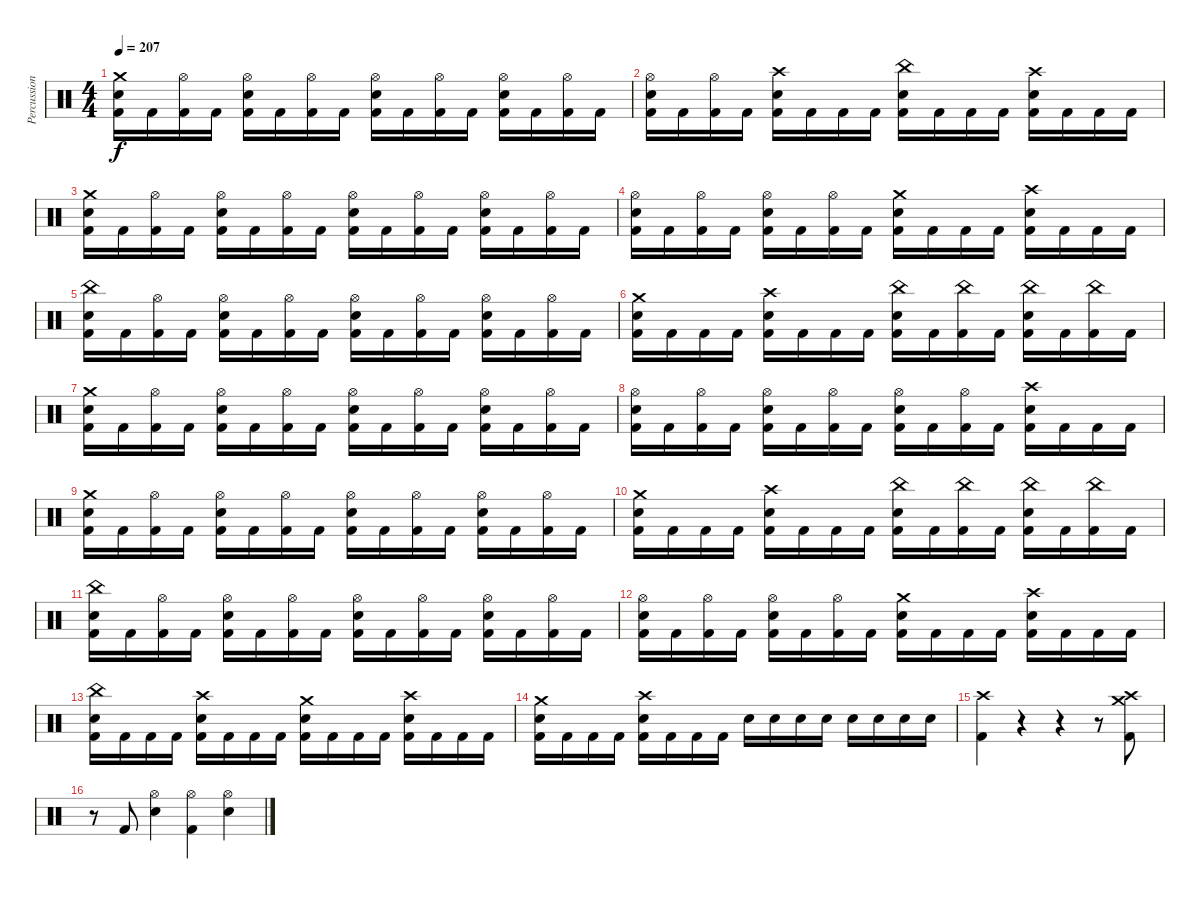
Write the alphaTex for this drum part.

\track ("Percussion" "Percussion") {instrument percussion}
\staff {score}
\articulation defaults
\ts (4 4)
\tempo 207
\clef neutral
\ks c
("Crash medium (hit)" "Electric Snare (hit)" "Kick (hit) 2").16{dy f} "Kick (hit) 2".16 ("Hi-Hat (open)" "Kick (hit) 2").16 "Kick (hit) 2".16 ("Hi-Hat (open)" "Electric Snare (hit)" "Kick (hit) 2").16 "Kick (hit) 2".16 ("Hi-Hat (open)" "Kick (hit) 2").16 "Kick (hit) 2".16 ("Hi-Hat (open)" "Electric Snare (hit)" "Kick (hit) 2").16 "Kick (hit) 2".16 ("Hi-Hat (open)" "Kick (hit) 2").16 "Kick (hit) 2".16 ("Hi-Hat (open)" "Electric Snare (hit)" "Kick (hit) 2").16 "Kick (hit) 2".16 ("Hi-Hat (open)" "Kick (hit) 2").16 "Kick (hit) 2".16 |
("Hi-Hat (open)" "Electric Snare (hit)" "Kick (hit) 2").16 "Kick (hit) 2".16 ("Hi-Hat (open)" "Kick (hit) 2").16 "Kick (hit) 2".16 ("Crash high (hit)" "Electric Snare (hit)" "Kick (hit) 2").16 "Kick (hit) 2".16 "Kick (hit) 2".16 "Kick (hit) 2".16 ("China (hit)" "Electric Snare (hit)" "Kick (hit) 2").16 "Kick (hit) 2".16 "Kick (hit) 2".16 "Kick (hit) 2".16 ("Crash high (hit)" "Electric Snare (hit)" "Kick (hit) 2").16 "Kick (hit) 2".16 "Kick (hit) 2".16 "Kick (hit) 2".16 |
("Crash medium (hit)" "Electric Snare (hit)" "Kick (hit) 2").16 "Kick (hit) 2".16 ("Hi-Hat (open)" "Kick (hit) 2").16 "Kick (hit) 2".16 ("Hi-Hat (open)" "Electric Snare (hit)" "Kick (hit) 2").16 "Kick (hit) 2".16 ("Hi-Hat (open)" "Kick (hit) 2").16 "Kick (hit) 2".16 ("Hi-Hat (open)" "Electric Snare (hit)" "Kick (hit) 2").16 "Kick (hit) 2".16 ("Hi-Hat (open)" "Kick (hit) 2").16 "Kick (hit) 2".16 ("Hi-Hat (open)" "Electric Snare (hit)" "Kick (hit) 2").16 "Kick (hit) 2".16 ("Hi-Hat (open)" "Kick (hit) 2").16 "Kick (hit) 2".16 |
("Hi-Hat (open)" "Electric Snare (hit)" "Kick (hit) 2").16 "Kick (hit) 2".16 ("Hi-Hat (open)" "Kick (hit) 2").16 "Kick (hit) 2".16 ("Hi-Hat (open)" "Electric Snare (hit)" "Kick (hit) 2").16 "Kick (hit) 2".16 ("Hi-Hat (open)" "Kick (hit) 2").16 "Kick (hit) 2".16 ("Crash medium (hit)" "Electric Snare (hit)" "Kick (hit) 2").16 "Kick (hit) 2".16 "Kick (hit) 2".16 "Kick (hit) 2".16 ("Crash high (hit)" "Electric Snare (hit)" "Kick (hit) 2").16 "Kick (hit) 2".16 "Kick (hit) 2".16 "Kick (hit) 2".16 |
("China (hit)" "Electric Snare (hit)" "Kick (hit) 2").16 "Kick (hit) 2".16 ("Hi-Hat (open)" "Kick (hit) 2").16 "Kick (hit) 2".16 ("Hi-Hat (open)" "Electric Snare (hit)" "Kick (hit) 2").16 "Kick (hit) 2".16 ("Hi-Hat (open)" "Kick (hit) 2").16 "Kick (hit) 2".16 ("Hi-Hat (open)" "Electric Snare (hit)" "Kick (hit) 2").16 "Kick (hit) 2".16 ("Hi-Hat (open)" "Kick (hit) 2").16 "Kick (hit) 2".16 ("Hi-Hat (open)" "Electric Snare (hit)" "Kick (hit) 2").16 "Kick (hit) 2".16 ("Hi-Hat (open)" "Kick (hit) 2").16 "Kick (hit) 2".16 |
("Crash medium (hit)" "Electric Snare (hit)" "Kick (hit) 2").16 "Kick (hit) 2".16 "Kick (hit) 2".16 "Kick (hit) 2".16 ("Crash high (hit)" "Electric Snare (hit)" "Kick (hit) 2").16 "Kick (hit) 2".16 "Kick (hit) 2".16 "Kick (hit) 2".16 ("China (hit)" "Electric Snare (hit)" "Kick (hit) 2").16 "Kick (hit) 2".16 ("China (hit)" "Kick (hit) 2").16 "Kick (hit) 2".16 ("China (hit)" "Electric Snare (hit)" "Kick (hit) 2").16 "Kick (hit) 2".16 ("China (hit)" "Kick (hit) 2").16 "Kick (hit) 2".16 |
("Crash medium (hit)" "Electric Snare (hit)" "Kick (hit) 2").16 "Kick (hit) 2".16 ("Hi-Hat (open)" "Kick (hit) 2").16 "Kick (hit) 2".16 ("Hi-Hat (open)" "Electric Snare (hit)" "Kick (hit) 2").16 "Kick (hit) 2".16 ("Hi-Hat (open)" "Kick (hit) 2").16 "Kick (hit) 2".16 ("Hi-Hat (open)" "Electric Snare (hit)" "Kick (hit) 2").16 "Kick (hit) 2".16 ("Hi-Hat (open)" "Kick (hit) 2").16 "Kick (hit) 2".16 ("Hi-Hat (open)" "Electric Snare (hit)" "Kick (hit) 2").16 "Kick (hit) 2".16 ("Hi-Hat (open)" "Kick (hit) 2").16 "Kick (hit) 2".16 |
("Hi-Hat (open)" "Electric Snare (hit)" "Kick (hit) 2").16 "Kick (hit) 2".16 ("Hi-Hat (open)" "Kick (hit) 2").16 "Kick (hit) 2".16 ("Hi-Hat (open)" "Electric Snare (hit)" "Kick (hit) 2").16 "Kick (hit) 2".16 ("Hi-Hat (open)" "Kick (hit) 2").16 "Kick (hit) 2".16 ("Hi-Hat (open)" "Electric Snare (hit)" "Kick (hit) 2").16 "Kick (hit) 2".16 ("Hi-Hat (open)" "Kick (hit) 2").16 "Kick (hit) 2".16 ("Crash high (hit)" "Electric Snare (hit)" "Kick (hit) 2").16 "Kick (hit) 2".16 "Kick (hit) 2".16 "Kick (hit) 2".16 |
("Crash medium (hit)" "Electric Snare (hit)" "Kick (hit) 2").16 "Kick (hit) 2".16 ("Hi-Hat (open)" "Kick (hit) 2").16 "Kick (hit) 2".16 ("Hi-Hat (open)" "Electric Snare (hit)" "Kick (hit) 2").16 "Kick (hit) 2".16 ("Hi-Hat (open)" "Kick (hit) 2").16 "Kick (hit) 2".16 ("Hi-Hat (open)" "Electric Snare (hit)" "Kick (hit) 2").16 "Kick (hit) 2".16 ("Hi-Hat (open)" "Kick (hit) 2").16 "Kick (hit) 2".16 ("Hi-Hat (open)" "Electric Snare (hit)" "Kick (hit) 2").16 "Kick (hit) 2".16 ("Hi-Hat (open)" "Kick (hit) 2").16 "Kick (hit) 2".16 |
("Crash medium (hit)" "Electric Snare (hit)" "Kick (hit) 2").16 "Kick (hit) 2".16 "Kick (hit) 2".16 "Kick (hit) 2".16 ("Crash high (hit)" "Electric Snare (hit)" "Kick (hit) 2").16 "Kick (hit) 2".16 "Kick (hit) 2".16 "Kick (hit) 2".16 ("China (hit)" "Electric Snare (hit)" "Kick (hit) 2").16 "Kick (hit) 2".16 ("China (hit)" "Kick (hit) 2").16 "Kick (hit) 2".16 ("China (hit)" "Electric Snare (hit)" "Kick (hit) 2").16 "Kick (hit) 2".16 ("China (hit)" "Kick (hit) 2").16 "Kick (hit) 2".16 |
("China (hit)" "Electric Snare (hit)" "Kick (hit) 2").16 "Kick (hit) 2".16 ("Hi-Hat (open)" "Kick (hit) 2").16 "Kick (hit) 2".16 ("Hi-Hat (open)" "Electric Snare (hit)" "Kick (hit) 2").16 "Kick (hit) 2".16 ("Hi-Hat (open)" "Kick (hit) 2").16 "Kick (hit) 2".16 ("Hi-Hat (open)" "Electric Snare (hit)" "Kick (hit) 2").16 "Kick (hit) 2".16 ("Hi-Hat (open)" "Kick (hit) 2").16 "Kick (hit) 2".16 ("Hi-Hat (open)" "Electric Snare (hit)" "Kick (hit) 2").16 "Kick (hit) 2".16 ("Hi-Hat (open)" "Kick (hit) 2").16 "Kick (hit) 2".16 |
("Hi-Hat (open)" "Electric Snare (hit)" "Kick (hit) 2").16 "Kick (hit) 2".16 ("Hi-Hat (open)" "Kick (hit) 2").16 "Kick (hit) 2".16 ("Hi-Hat (open)" "Electric Snare (hit)" "Kick (hit) 2").16 "Kick (hit) 2".16 ("Hi-Hat (open)" "Kick (hit) 2").16 "Kick (hit) 2".16 ("Crash medium (hit)" "Electric Snare (hit)" "Kick (hit) 2").16 "Kick (hit) 2".16 "Kick (hit) 2".16 "Kick (hit) 2".16 ("Crash high (hit)" "Electric Snare (hit)" "Kick (hit) 2").16 "Kick (hit) 2".16 "Kick (hit) 2".16 "Kick (hit) 2".16 |
("China (hit)" "Electric Snare (hit)" "Kick (hit) 2").16 "Kick (hit) 2".16 "Kick (hit) 2".16 "Kick (hit) 2".16 ("Crash high (hit)" "Electric Snare (hit)" "Kick (hit) 2").16 "Kick (hit) 2".16 "Kick (hit) 2".16 "Kick (hit) 2".16 ("Crash medium (hit)" "Electric Snare (hit)" "Kick (hit) 2").16 "Kick (hit) 2".16 "Kick (hit) 2".16 "Kick (hit) 2".16 ("Crash high (hit)" "Electric Snare (hit)" "Kick (hit) 2").16 "Kick (hit) 2".16 "Kick (hit) 2".16 "Kick (hit) 2".16 |
("Crash medium (hit)" "Electric Snare (hit)" "Kick (hit) 2").16 "Kick (hit) 2".16 "Kick (hit) 2".16 "Kick (hit) 2".16 ("Crash high (hit)" "Electric Snare (hit)" "Kick (hit) 2").16 "Kick (hit) 2".16 "Kick (hit) 2".16 "Kick (hit) 2".16 "Electric Snare (hit)".16 "Electric Snare (hit)".16 "Electric Snare (hit)".16 "Electric Snare (hit)".16 "Electric Snare (hit)".16 "Electric Snare (hit)".16 "Electric Snare (hit)".16 "Electric Snare (hit)".16 |
("Crash high (hit)"{x} "Kick (hit) 2").4 r.4 r.4 r.8 ("Crash high (hit)" "Crash medium (hit)" "Kick (hit) 2").8 |
r.8 "Kick (hit) 2".8 ("Hi-Hat (open)" "Electric Snare (hit)").4 ("Hi-Hat (open)" "Kick (hit) 2").4 ("Hi-Hat (open)" "Electric Snare (hit)").4
